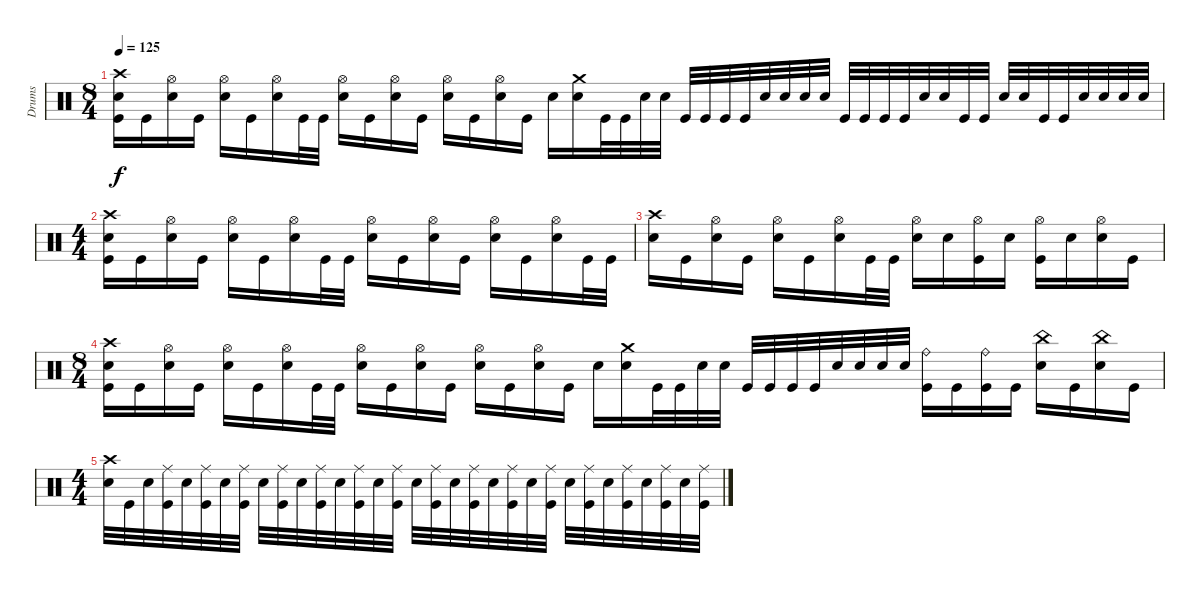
\track ("Drums" "Drums") {instrument percussion}
\staff
\articulation defaults
\ts (8 4)
\tempo 125
\clef neutral
\ks c
("Crash high (hit)" "Electric Snare (hit)" "Kick (hit)").16{dy f} "Kick (hit)".16 ("Hi-Hat (open)" "Electric Snare (hit)").16 "Kick (hit)".16 ("Hi-Hat (open)" "Electric Snare (hit)").16 "Kick (hit)".16 ("Hi-Hat (open)" "Electric Snare (hit)").16 "Kick (hit)".32 "Kick (hit)".32 ("Hi-Hat (open)" "Electric Snare (hit)").16 "Kick (hit)".16 ("Hi-Hat (open)" "Electric Snare (hit)").16 "Kick (hit)".16 ("Hi-Hat (open)" "Electric Snare (hit)").16 "Kick (hit)".16 ("Hi-Hat (open)" "Electric Snare (hit)").16 "Kick (hit)".16 "Electric Snare (hit)".16 ("Crash medium (hit)" "Electric Snare (hit)").16 "Kick (hit)".32 "Kick (hit)".32 "Electric Snare (hit)".32 "Electric Snare (hit)".32 "Kick (hit)".32 "Kick (hit)".32 "Kick (hit)".32 "Kick (hit)".32 "Electric Snare (hit)".32 "Electric Snare (hit)".32 "Electric Snare (hit)".32 "Electric Snare (hit)".32 "Kick (hit)".32 "Kick (hit)".32 "Kick (hit)".32 "Kick (hit)".32 "Electric Snare (hit)".32 "Electric Snare (hit)".32 "Kick (hit)".32 "Kick (hit)".32 "Electric Snare (hit)".32 "Electric Snare (hit)".32 "Kick (hit)".32 "Kick (hit)".32 "Electric Snare (hit)".32 "Electric Snare (hit)".32 "Electric Snare (hit)".32 "Electric Snare (hit)".32 |
\ts (4 4)
("Crash high (hit)" "Electric Snare (hit)" "Kick (hit)").16 "Kick (hit)".16 ("Hi-Hat (open)" "Electric Snare (hit)").16 "Kick (hit)".16 ("Hi-Hat (open)" "Electric Snare (hit)").16 "Kick (hit)".16 ("Hi-Hat (open)" "Electric Snare (hit)").16 "Kick (hit)".32 "Kick (hit)".32 ("Hi-Hat (open)" "Electric Snare (hit)").16 "Kick (hit)".16 ("Hi-Hat (open)" "Electric Snare (hit)").16 "Kick (hit)".16 ("Hi-Hat (open)" "Electric Snare (hit)").16 "Kick (hit)".16 ("Hi-Hat (open)" "Electric Snare (hit)").16 "Kick (hit)".32 "Kick (hit)".32 |
("Crash high (hit)" "Electric Snare (hit)").16 "Kick (hit)".16 ("Hi-Hat (open)" "Electric Snare (hit)").16 "Kick (hit)".16 ("Hi-Hat (open)" "Electric Snare (hit)").16 "Kick (hit)".16 ("Hi-Hat (open)" "Electric Snare (hit)").16 "Kick (hit)".32 "Kick (hit)".32 ("Hi-Hat (open)" "Electric Snare (hit)").16 "Electric Snare (hit)".16 ("Hi-Hat (open)" "Kick (hit)").16 "Electric Snare (hit)".16 ("Hi-Hat (open)" "Kick (hit)").16 "Electric Snare (hit)".16 ("Hi-Hat (open)" "Electric Snare (hit)").16 "Kick (hit)".16 |
\ts (8 4)
("Crash high (hit)" "Electric Snare (hit)" "Kick (hit)").16 "Kick (hit)".16 ("Hi-Hat (open)" "Electric Snare (hit)").16 "Kick (hit)".16 ("Hi-Hat (open)" "Electric Snare (hit)").16 "Kick (hit)".16 ("Hi-Hat (open)" "Electric Snare (hit)").16 "Kick (hit)".32 "Kick (hit)".32 ("Hi-Hat (open)" "Electric Snare (hit)").16 "Kick (hit)".16 ("Hi-Hat (open)" "Electric Snare (hit)").16 "Kick (hit)".16 ("Hi-Hat (open)" "Electric Snare (hit)").16 "Kick (hit)".16 ("Hi-Hat (open)" "Electric Snare (hit)").16 "Kick (hit)".16 "Electric Snare (hit)".16 ("Crash medium (hit)" "Electric Snare (hit)").16 "Kick (hit)".32 "Kick (hit)".32 "Electric Snare (hit)".32 "Electric Snare (hit)".32 "Kick (hit)".32 "Kick (hit)".32 "Kick (hit)".32 "Kick (hit)".32 "Electric Snare (hit)".32 "Electric Snare (hit)".32 "Electric Snare (hit)".32 "Electric Snare (hit)".32 ("Ride (bell)" "Kick (hit)").16 "Kick (hit)".16 ("Ride (bell)" "Kick (hit)").16 "Kick (hit)".16 ("China (hit)" "Electric Snare (hit)").16 "Kick (hit)".16 ("China (hit)" "Electric Snare (hit)").16 "Kick (hit)".16 |
\ts (4 4)
("Crash high (hit)" "Electric Snare (hit)").32 "Kick (hit)".32 "Electric Snare (hit)".32 ("Ride (middle)" "Kick (hit)").32 "Electric Snare (hit)".32 ("Ride (middle)" "Kick (hit)").32 "Electric Snare (hit)".32 ("Ride (middle)" "Kick (hit)").32 "Electric Snare (hit)".32 ("Ride (middle)" "Kick (hit)").32 "Electric Snare (hit)".32 ("Ride (middle)" "Kick (hit)").32 "Electric Snare (hit)".32 ("Ride (middle)" "Kick (hit)").32 "Electric Snare (hit)".32 ("Ride (middle)" "Kick (hit)").32 "Electric Snare (hit)".32 ("Ride (middle)" "Kick (hit)").32 "Electric Snare (hit)".32 ("Ride (middle)" "Kick (hit)").32 "Electric Snare (hit)".32 ("Ride (middle)" "Kick (hit)").32 "Electric Snare (hit)".32 ("Ride (middle)" "Kick (hit)").32 "Electric Snare (hit)".32 ("Ride (middle)" "Kick (hit)").32 "Electric Snare (hit)".32 ("Ride (middle)" "Kick (hit)").32 "Electric Snare (hit)".32 ("Ride (middle)" "Kick (hit)").32 "Electric Snare (hit)".32 ("Ride (middle)" "Kick (hit)").32
